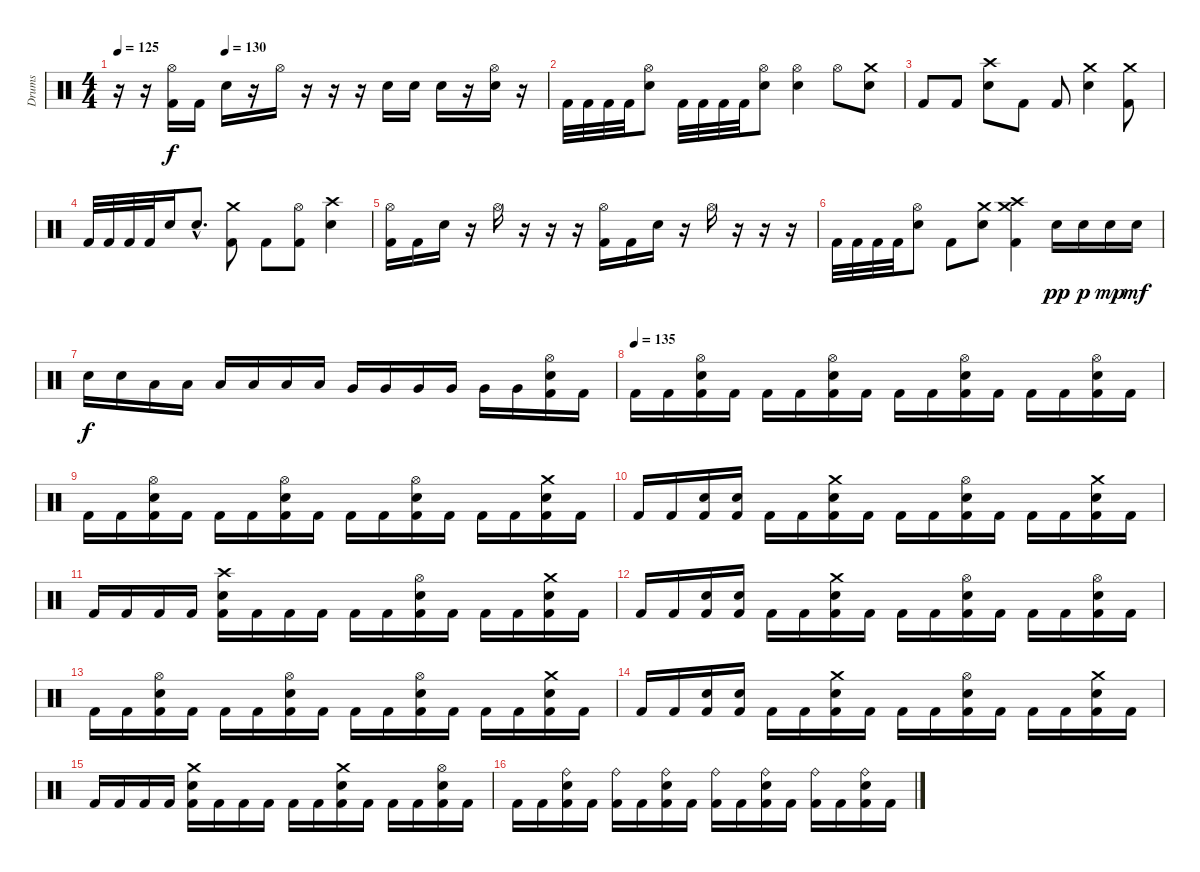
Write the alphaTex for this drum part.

\track ("Drums" "Drums") {instrument percussion}
\staff {score}
\articulation defaults
\ts (4 4)
\tempo 125
\tempo (130 0.25)
\clef neutral
\ks c
r.16{dy f} r.16 ("Hi-Hat (open)" "Kick (hit) 2").16 "Kick (hit) 2".16 "Snare (hit) 2".16 r.16 "Hi-Hat (open)".16 r.16 r.16 r.16 "Snare (hit) 2".16 "Snare (hit) 2".16 "Snare (hit) 2".16 r.16 ("Hi-Hat (open)" "Snare (hit) 2").16 r.16 |
"Kick (hit) 2".32 "Kick (hit) 2".32 "Kick (hit) 2".32 "Kick (hit) 2".32 ("Hi-Hat (open)" "Snare (hit) 2").8 "Kick (hit) 2".32 "Kick (hit) 2".32 "Kick (hit) 2".32 "Kick (hit) 2".32 ("Hi-Hat (open)" "Snare (hit) 2").8 ("Hi-Hat (open)" "Snare (hit) 2").4 "Hi-Hat (open)".8 ("Crash medium (hit)" "Snare (hit) 2").8 |
"Kick (hit) 2".8 "Kick (hit) 2".8 ("Crash high (hit)" "Snare (hit) 2").8 "Kick (hit) 2".8 "Kick (hit) 2".8 ("Crash medium (hit)" "Snare (hit) 2").4 ("Crash medium (hit)" "Kick (hit) 2").8 |
"Kick (hit) 2".32 "Kick (hit) 2".32 "Kick (hit) 2".32 "Kick (hit) 2".32 "Snare (hit) 2".16 "Snare (hit) 2"{hac}.8{d} ("Crash medium (hit)" "Kick (hit) 2").8 "Kick (hit) 2".8 ("Hi-Hat (open)" "Kick (hit) 2").8 ("Crash high (hit)" "Snare (hit) 2").4 |
("Hi-Hat (open)" "Kick (hit) 2").16 "Kick (hit) 2".16 "Snare (hit) 2".16 r.16 "Hi-Hat (open)".16 r.16 r.16 r.16 ("Hi-Hat (open)" "Kick (hit) 2").16 "Kick (hit) 2".16 "Snare (hit) 2".16 r.16 "Hi-Hat (open)".16 r.16 r.16 r.16 |
"Kick (hit) 2".32 "Kick (hit) 2".32 "Kick (hit) 2".32 "Kick (hit) 2".32 ("Hi-Hat (open)" "Snare (hit) 2").8 "Kick (hit) 2".8 ("Crash medium (hit)" "Snare (hit) 2").8 ("Crash high (hit)" "Crash medium (hit)" "Kick (hit) 2").4 "Snare (hit) 2".16{dy pp} "Snare (hit) 2".16{dy p} "Snare (hit) 2".16{dy mp} "Snare (hit) 2".16{dy mf} |
"Snare (hit) 2".16{dy f} "Snare (hit) 2".16 "Low Tom (hit)".16 "Low Tom (hit)".16 "Low Tom (hit)".16 "Low Tom (hit)".16 "Low Tom (hit)".16 "Low Tom (hit)".16 "Very Low Tom (hit)".16 "Very Low Tom (hit)".16 "Very Low Tom (hit)".16 "Very Low Tom (hit)".16 "Very Low Tom (hit)".16 "Very Low Tom (hit)".16 ("Hi-Hat (open)" "Snare (hit) 2" "Kick (hit) 2").16 "Kick (hit) 2".16 |
\tempo (135)
"Kick (hit) 2".16 "Kick (hit) 2".16 ("Hi-Hat (open)" "Snare (hit) 2" "Kick (hit) 2").16 "Kick (hit) 2".16 "Kick (hit) 2".16 "Kick (hit) 2".16 ("Hi-Hat (open)" "Snare (hit) 2" "Kick (hit) 2").16 "Kick (hit) 2".16 "Kick (hit) 2".16 "Kick (hit) 2".16 ("Hi-Hat (open)" "Snare (hit) 2" "Kick (hit) 2").16 "Kick (hit) 2".16 "Kick (hit) 2".16 "Kick (hit) 2".16 ("Hi-Hat (open)" "Snare (hit) 2" "Kick (hit) 2").16 "Kick (hit) 2".16 |
"Kick (hit) 2".16 "Kick (hit) 2".16 ("Hi-Hat (open)" "Snare (hit) 2" "Kick (hit) 2").16 "Kick (hit) 2".16 "Kick (hit) 2".16 "Kick (hit) 2".16 ("Hi-Hat (open)" "Snare (hit) 2" "Kick (hit) 2").16 "Kick (hit) 2".16 "Kick (hit) 2".16 "Kick (hit) 2".16 ("Hi-Hat (open)" "Snare (hit) 2" "Kick (hit) 2").16 "Kick (hit) 2".16 "Kick (hit) 2".16 "Kick (hit) 2".16 ("Crash medium (hit)" "Snare (hit) 2" "Kick (hit) 2").16 "Kick (hit) 2".16 |
"Kick (hit) 2".16 "Kick (hit) 2".16 ("Snare (hit) 2" "Kick (hit) 2").16 ("Snare (hit) 2" "Kick (hit) 2").16 "Kick (hit) 2".16 "Kick (hit) 2".16 ("Crash medium (hit)" "Snare (hit) 2" "Kick (hit) 2").16 "Kick (hit) 2".16 "Kick (hit) 2".16 "Kick (hit) 2".16 ("Hi-Hat (open)" "Snare (hit) 2" "Kick (hit) 2").16 "Kick (hit) 2".16 "Kick (hit) 2".16 "Kick (hit) 2".16 ("Crash medium (hit)" "Snare (hit) 2" "Kick (hit) 2").16 "Kick (hit) 2".16 |
"Kick (hit) 2".16 "Kick (hit) 2".16 "Kick (hit) 2".16 "Kick (hit) 2".16 ("Crash high (hit)" "Snare (hit) 2" "Kick (hit) 2").16 "Kick (hit) 2".16 "Kick (hit) 2".16 "Kick (hit) 2".16 "Kick (hit) 2".16 "Kick (hit) 2".16 ("Hi-Hat (open)" "Snare (hit) 2" "Kick (hit) 2").16 "Kick (hit) 2".16 "Kick (hit) 2".16 "Kick (hit) 2".16 ("Crash medium (hit)" "Snare (hit) 2" "Kick (hit) 2").16 "Kick (hit) 2".16 |
"Kick (hit) 2".16 "Kick (hit) 2".16 ("Snare (hit) 2" "Kick (hit) 2").16 ("Snare (hit) 2" "Kick (hit) 2").16 "Kick (hit) 2".16 "Kick (hit) 2".16 ("Crash medium (hit)" "Snare (hit) 2" "Kick (hit) 2").16 "Kick (hit) 2".16 "Kick (hit) 2".16 "Kick (hit) 2".16 ("Hi-Hat (open)" "Snare (hit) 2" "Kick (hit) 2").16 "Kick (hit) 2".16 "Kick (hit) 2".16 "Kick (hit) 2".16 ("Hi-Hat (open)" "Snare (hit) 2" "Kick (hit) 2").16 "Kick (hit) 2".16 |
"Kick (hit) 2".16 "Kick (hit) 2".16 ("Hi-Hat (open)" "Snare (hit) 2" "Kick (hit) 2").16 "Kick (hit) 2".16 "Kick (hit) 2".16 "Kick (hit) 2".16 ("Hi-Hat (open)" "Snare (hit) 2" "Kick (hit) 2").16 "Kick (hit) 2".16 "Kick (hit) 2".16 "Kick (hit) 2".16 ("Hi-Hat (open)" "Snare (hit) 2" "Kick (hit) 2").16 "Kick (hit) 2".16 "Kick (hit) 2".16 "Kick (hit) 2".16 ("Crash medium (hit)" "Snare (hit) 2" "Kick (hit) 2").16 "Kick (hit) 2".16 |
"Kick (hit) 2".16 "Kick (hit) 2".16 ("Snare (hit) 2" "Kick (hit) 2").16 ("Snare (hit) 2" "Kick (hit) 2").16 "Kick (hit) 2".16 "Kick (hit) 2".16 ("Crash medium (hit)" "Snare (hit) 2" "Kick (hit) 2").16 "Kick (hit) 2".16 "Kick (hit) 2".16 "Kick (hit) 2".16 ("Hi-Hat (open)" "Snare (hit) 2" "Kick (hit) 2").16 "Kick (hit) 2".16 "Kick (hit) 2".16 "Kick (hit) 2".16 ("Crash medium (hit)" "Snare (hit) 2" "Kick (hit) 2").16 "Kick (hit) 2".16 |
"Kick (hit) 2".16 "Kick (hit) 2".16 "Kick (hit) 2".16 "Kick (hit) 2".16 ("Crash medium (hit)" "Snare (hit) 2" "Kick (hit) 2").16 "Kick (hit) 2".16 "Kick (hit) 2".16 "Kick (hit) 2".16 "Kick (hit) 2".16 "Kick (hit) 2".16 ("Crash medium (hit)" "Snare (hit) 2" "Kick (hit) 2").16 "Kick (hit) 2".16 "Kick (hit) 2".16 "Kick (hit) 2".16 ("Hi-Hat (open)" "Snare (hit) 2" "Kick (hit) 2").16 "Kick (hit) 2".16 |
"Kick (hit) 2".16 "Kick (hit) 2".16 ("Ride (bell)" "Snare (hit) 2" "Kick (hit) 2").16 "Kick (hit) 2".16 ("Ride (bell)" "Kick (hit) 2").16 "Kick (hit) 2".16 ("Ride (bell)" "Snare (hit) 2" "Kick (hit) 2").16 "Kick (hit) 2".16 ("Ride (bell)" "Kick (hit) 2").16 "Kick (hit) 2".16 ("Ride (bell)" "Snare (hit) 2" "Kick (hit) 2").16 "Kick (hit) 2".16 ("Ride (bell)" "Kick (hit) 2").16 "Kick (hit) 2".16 ("Ride (bell)" "Snare (hit) 2" "Kick (hit) 2").16 "Kick (hit) 2".16
